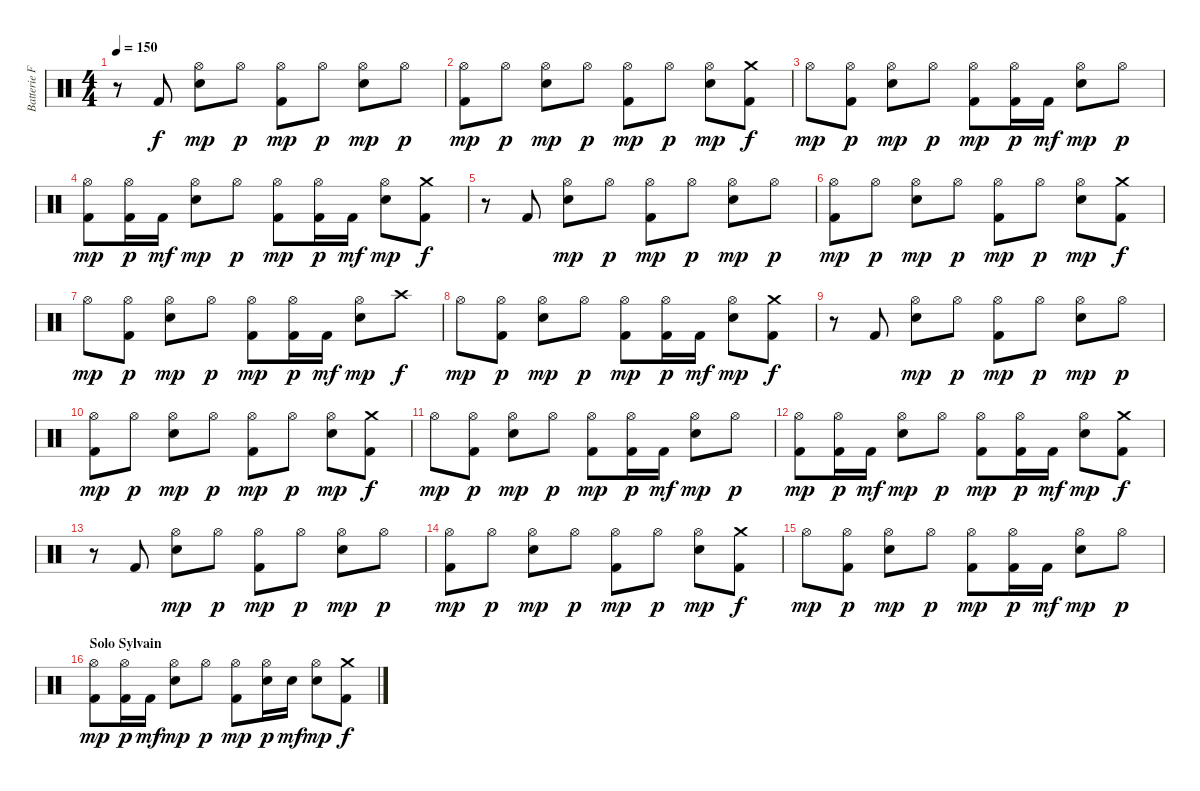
\track ("Batterie Franck" "Batterie F") {instrument percussion}
\staff {score}
\articulation defaults
\ts (4 4)
\tempo 150
\clef neutral
\ks c
r.8{dy f} "Kick (hit) 2".8 ("Hi-Hat (open)" "Snare (hit) 2").8{dy mp} "Hi-Hat (open)".8{dy p} ("Hi-Hat (open)" "Kick (hit) 2").8{dy mp} "Hi-Hat (open)".8{dy p} ("Hi-Hat (open)" "Snare (hit) 2").8{dy mp} "Hi-Hat (open)".8{dy p} |
("Hi-Hat (open)" "Kick (hit) 2").8{dy mp} "Hi-Hat (open)".8{dy p} ("Hi-Hat (open)" "Snare (hit) 2").8{dy mp} "Hi-Hat (open)".8{dy p} ("Hi-Hat (open)" "Kick (hit) 2").8{dy mp} "Hi-Hat (open)".8{dy p} ("Hi-Hat (open)" "Snare (hit) 2").8{dy mp} ("Crash medium (hit)" "Kick (hit) 2").8{dy f} |
"Hi-Hat (open)".8{dy mp} ("Hi-Hat (open)" "Kick (hit) 2").8{dy p} ("Hi-Hat (open)" "Snare (hit) 2").8{dy mp} "Hi-Hat (open)".8{dy p} ("Hi-Hat (open)" "Kick (hit) 2").8{dy mp} ("Hi-Hat (open)" "Kick (hit) 2").16{dy p} "Kick (hit) 2".16{dy mf} ("Hi-Hat (open)" "Snare (hit) 2").8{dy mp} "Hi-Hat (open)".8{dy p} |
("Hi-Hat (open)" "Kick (hit) 2").8{dy mp} ("Hi-Hat (open)" "Kick (hit) 2").16{dy p} "Kick (hit) 2".16{dy mf} ("Hi-Hat (open)" "Snare (hit) 2").8{dy mp} "Hi-Hat (open)".8{dy p} ("Hi-Hat (open)" "Kick (hit) 2").8{dy mp} ("Hi-Hat (open)" "Kick (hit) 2").16{dy p} "Kick (hit) 2".16{dy mf} ("Hi-Hat (open)" "Snare (hit) 2").8{dy mp} ("Crash medium (hit)" "Kick (hit) 2").8{dy f} |
r.8 "Kick (hit) 2".8 ("Hi-Hat (open)" "Snare (hit) 2").8{dy mp} "Hi-Hat (open)".8{dy p} ("Hi-Hat (open)" "Kick (hit) 2").8{dy mp} "Hi-Hat (open)".8{dy p} ("Hi-Hat (open)" "Snare (hit) 2").8{dy mp} "Hi-Hat (open)".8{dy p} |
("Hi-Hat (open)" "Kick (hit) 2").8{dy mp} "Hi-Hat (open)".8{dy p} ("Hi-Hat (open)" "Snare (hit) 2").8{dy mp} "Hi-Hat (open)".8{dy p} ("Hi-Hat (open)" "Kick (hit) 2").8{dy mp} "Hi-Hat (open)".8{dy p} ("Hi-Hat (open)" "Snare (hit) 2").8{dy mp} ("Crash medium (hit)" "Kick (hit) 2").8{dy f} |
"Hi-Hat (open)".8{dy mp} ("Hi-Hat (open)" "Kick (hit) 2").8{dy p} ("Hi-Hat (open)" "Snare (hit) 2").8{dy mp} "Hi-Hat (open)".8{dy p} ("Hi-Hat (open)" "Kick (hit) 2").8{dy mp} ("Hi-Hat (open)" "Kick (hit) 2").16{dy p} "Kick (hit) 2".16{dy mf} ("Hi-Hat (open)" "Snare (hit) 2").8{dy mp} "Crash high (hit)".8{dy f} |
"Hi-Hat (open)".8{dy mp} ("Hi-Hat (open)" "Kick (hit) 2").8{dy p} ("Hi-Hat (open)" "Snare (hit) 2").8{dy mp} "Hi-Hat (open)".8{dy p} ("Hi-Hat (open)" "Kick (hit) 2").8{dy mp} ("Hi-Hat (open)" "Kick (hit) 2").16{dy p} "Kick (hit) 2".16{dy mf} ("Hi-Hat (open)" "Snare (hit) 2").8{dy mp} ("Crash medium (hit)" "Kick (hit) 2").8{dy f} |
r.8 "Kick (hit) 2".8 ("Hi-Hat (open)" "Snare (hit) 2").8{dy mp} "Hi-Hat (open)".8{dy p} ("Hi-Hat (open)" "Kick (hit) 2").8{dy mp} "Hi-Hat (open)".8{dy p} ("Hi-Hat (open)" "Snare (hit) 2").8{dy mp} "Hi-Hat (open)".8{dy p} |
("Hi-Hat (open)" "Kick (hit) 2").8{dy mp} "Hi-Hat (open)".8{dy p} ("Hi-Hat (open)" "Snare (hit) 2").8{dy mp} "Hi-Hat (open)".8{dy p} ("Hi-Hat (open)" "Kick (hit) 2").8{dy mp} "Hi-Hat (open)".8{dy p} ("Hi-Hat (open)" "Snare (hit) 2").8{dy mp} ("Crash medium (hit)" "Kick (hit) 2").8{dy f} |
"Hi-Hat (open)".8{dy mp} ("Hi-Hat (open)" "Kick (hit) 2").8{dy p} ("Hi-Hat (open)" "Snare (hit) 2").8{dy mp} "Hi-Hat (open)".8{dy p} ("Hi-Hat (open)" "Kick (hit) 2").8{dy mp} ("Hi-Hat (open)" "Kick (hit) 2").16{dy p} "Kick (hit) 2".16{dy mf} ("Hi-Hat (open)" "Snare (hit) 2").8{dy mp} "Hi-Hat (open)".8{dy p} |
("Hi-Hat (open)" "Kick (hit) 2").8{dy mp} ("Hi-Hat (open)" "Kick (hit) 2").16{dy p} "Kick (hit) 2".16{dy mf} ("Hi-Hat (open)" "Snare (hit) 2").8{dy mp} "Hi-Hat (open)".8{dy p} ("Hi-Hat (open)" "Kick (hit) 2").8{dy mp} ("Hi-Hat (open)" "Kick (hit) 2").16{dy p} "Kick (hit) 2".16{dy mf} ("Hi-Hat (open)" "Snare (hit) 2").8{dy mp} ("Crash medium (hit)" "Kick (hit) 2").8{dy f} |
r.8 "Kick (hit) 2".8 ("Hi-Hat (open)" "Snare (hit) 2").8{dy mp} "Hi-Hat (open)".8{dy p} ("Hi-Hat (open)" "Kick (hit) 2").8{dy mp} "Hi-Hat (open)".8{dy p} ("Hi-Hat (open)" "Snare (hit) 2").8{dy mp} "Hi-Hat (open)".8{dy p} |
("Hi-Hat (open)" "Kick (hit) 2").8{dy mp} "Hi-Hat (open)".8{dy p} ("Hi-Hat (open)" "Snare (hit) 2").8{dy mp} "Hi-Hat (open)".8{dy p} ("Hi-Hat (open)" "Kick (hit) 2").8{dy mp} "Hi-Hat (open)".8{dy p} ("Hi-Hat (open)" "Snare (hit) 2").8{dy mp} ("Crash medium (hit)" "Kick (hit) 2").8{dy f} |
"Hi-Hat (open)".8{dy mp} ("Hi-Hat (open)" "Kick (hit) 2").8{dy p} ("Hi-Hat (open)" "Snare (hit) 2").8{dy mp} "Hi-Hat (open)".8{dy p} ("Hi-Hat (open)" "Kick (hit) 2").8{dy mp} ("Hi-Hat (open)" "Kick (hit) 2").16{dy p} "Kick (hit) 2".16{dy mf} ("Hi-Hat (open)" "Snare (hit) 2").8{dy mp} "Hi-Hat (open)".8{dy p} |
\section ("" "Solo Sylvain")
("Hi-Hat (open)" "Kick (hit) 2").8{dy mp} ("Hi-Hat (open)" "Kick (hit) 2").16{dy p} "Kick (hit) 2".16{dy mf} ("Hi-Hat (open)" "Snare (hit) 2").8{dy mp} "Hi-Hat (open)".8{dy p} ("Hi-Hat (open)" "Kick (hit) 2").8{dy mp} ("Hi-Hat (open)" "Snare (hit) 2").16{dy p} "Snare (hit) 2".16{dy mf} ("Hi-Hat (open)" "Snare (hit) 2").8{dy mp} ("Crash medium (hit)" "Kick (hit) 2").8{dy f}
